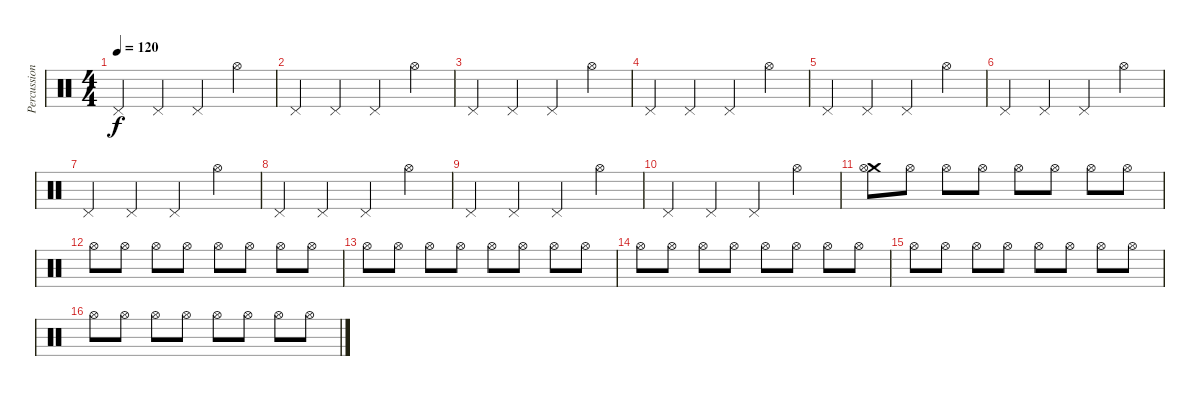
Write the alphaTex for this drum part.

\track ("Percussions" "Percussion") {instrument percussion}
\staff {score}
\articulation defaults
\ts (4 4)
\tempo 120
\clef neutral
\ks c "Pedal Hi-Hat (hit)".4{dy f} "Pedal Hi-Hat (hit)".4 "Pedal Hi-Hat (hit)".4 "Hi-Hat (open)".4
|
"Pedal Hi-Hat (hit)".4 "Pedal Hi-Hat (hit)".4 "Pedal Hi-Hat (hit)".4 "Hi-Hat (open)".4 |
"Pedal Hi-Hat (hit)".4 "Pedal Hi-Hat (hit)".4 "Pedal Hi-Hat (hit)".4 "Hi-Hat (open)".4 |
"Pedal Hi-Hat (hit)".4 "Pedal Hi-Hat (hit)".4 "Pedal Hi-Hat (hit)".4 "Hi-Hat (open)".4 |
"Pedal Hi-Hat (hit)".4 "Pedal Hi-Hat (hit)".4 "Pedal Hi-Hat (hit)".4 "Hi-Hat (open)".4 |
"Pedal Hi-Hat (hit)".4 "Pedal Hi-Hat (hit)".4 "Pedal Hi-Hat (hit)".4 "Hi-Hat (open)".4 |
"Pedal Hi-Hat (hit)".4 "Pedal Hi-Hat (hit)".4 "Pedal Hi-Hat (hit)".4 "Hi-Hat (open)".4 |
"Pedal Hi-Hat (hit)".4 "Pedal Hi-Hat (hit)".4 "Pedal Hi-Hat (hit)".4 "Hi-Hat (open)".4 |
"Pedal Hi-Hat (hit)".4 "Pedal Hi-Hat (hit)".4 "Pedal Hi-Hat (hit)".4 "Hi-Hat (open)".4 |
"Pedal Hi-Hat (hit)".4 "Pedal Hi-Hat (hit)".4 "Pedal Hi-Hat (hit)".4 "Hi-Hat (open)".4 |
("Crash medium (hit)" "Hi-Hat (open)").8 "Hi-Hat (open)".8 "Hi-Hat (open)".8 "Hi-Hat (open)".8 "Hi-Hat (open)".8 "Hi-Hat (open)".8 "Hi-Hat (open)".8 "Hi-Hat (open)".8 |
"Hi-Hat (open)".8 "Hi-Hat (open)".8 "Hi-Hat (open)".8 "Hi-Hat (open)".8 "Hi-Hat (open)".8 "Hi-Hat (open)".8 "Hi-Hat (open)".8 "Hi-Hat (open)".8 |
"Hi-Hat (open)".8 "Hi-Hat (open)".8 "Hi-Hat (open)".8 "Hi-Hat (open)".8 "Hi-Hat (open)".8 "Hi-Hat (open)".8 "Hi-Hat (open)".8 "Hi-Hat (open)".8 |
"Hi-Hat (open)".8 "Hi-Hat (open)".8 "Hi-Hat (open)".8 "Hi-Hat (open)".8 "Hi-Hat (open)".8 "Hi-Hat (open)".8 "Hi-Hat (open)".8 "Hi-Hat (open)".8 |
"Hi-Hat (open)".8 "Hi-Hat (open)".8 "Hi-Hat (open)".8 "Hi-Hat (open)".8 "Hi-Hat (open)".8 "Hi-Hat (open)".8 "Hi-Hat (open)".8 "Hi-Hat (open)".8 |
"Hi-Hat (open)".8 "Hi-Hat (open)".8 "Hi-Hat (open)".8 "Hi-Hat (open)".8 "Hi-Hat (open)".8 "Hi-Hat (open)".8 "Hi-Hat (open)".8 "Hi-Hat (open)".8
